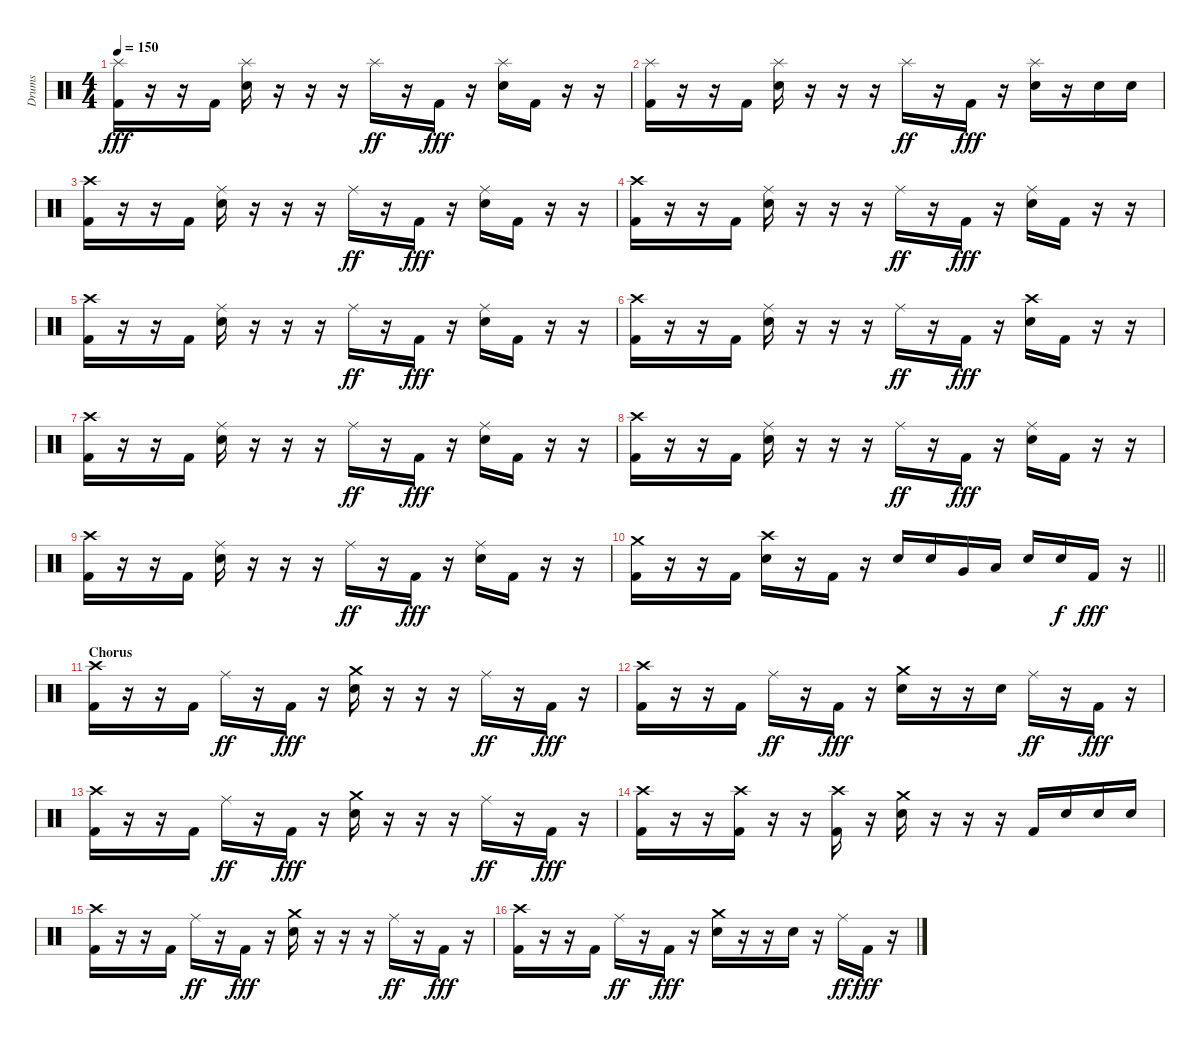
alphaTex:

\track ("Drums" "Drums") {instrument percussion}
\staff {score}
\articulation defaults
\ts (4 4)
\tempo 150
\clef neutral
\ks c
("Splash (hit)" "Kick (hit) 2").16{dy fff} r.16 r.16 "Kick (hit) 2".16 ("Splash (hit)" "Electric Snare (hit)").16 r.16 r.16 r.16 "Splash (hit)".16{dy ff} r.16 "Kick (hit) 2".16{dy fff} r.16 ("Splash (hit)" "Electric Snare (hit)").16 "Kick (hit) 2".16 r.16 r.16 |
("Splash (hit)" "Kick (hit) 2").16 r.16 r.16 "Kick (hit) 2".16 ("Splash (hit)" "Electric Snare (hit)").16 r.16 r.16 r.16 "Splash (hit)".16{dy ff} r.16 "Kick (hit) 2".16{dy fff} r.16 ("Splash (hit)" "Electric Snare (hit)").16 r.16 "Electric Snare (hit)".16 "Electric Snare (hit)".16 |
("Crash high (hit)" "Kick (hit) 2").16 r.16 r.16 "Kick (hit) 2".16 ("Ride (middle)" "Electric Snare (hit)").16 r.16 r.16 r.16 "Ride (middle)".16{dy ff} r.16 "Kick (hit) 2".16{dy fff} r.16 ("Ride (middle)" "Electric Snare (hit)").16 "Kick (hit) 2".16 r.16 r.16 |
("Crash high (hit)" "Kick (hit) 2").16 r.16 r.16 "Kick (hit) 2".16 ("Ride (middle)" "Electric Snare (hit)").16 r.16 r.16 r.16 "Ride (middle)".16{dy ff} r.16 "Kick (hit) 2".16{dy fff} r.16 ("Ride (middle)" "Electric Snare (hit)").16 "Kick (hit) 2".16 r.16 r.16 |
("Crash high (hit)" "Kick (hit) 2").16 r.16 r.16 "Kick (hit) 2".16 ("Ride (middle)" "Electric Snare (hit)").16 r.16 r.16 r.16 "Ride (middle)".16{dy ff} r.16 "Kick (hit) 2".16{dy fff} r.16 ("Ride (middle)" "Electric Snare (hit)").16 "Kick (hit) 2".16 r.16 r.16 |
("Crash high (hit)" "Kick (hit) 2").16 r.16 r.16 "Kick (hit) 2".16 ("Ride (middle)" "Electric Snare (hit)").16 r.16 r.16 r.16 "Ride (middle)".16{dy ff} r.16 "Kick (hit) 2".16{dy fff} r.16 ("Crash high (hit)" "Electric Snare (hit)").16 "Kick (hit) 2".16 r.16 r.16 |
("Crash high (hit)" "Kick (hit) 2").16 r.16 r.16 "Kick (hit) 2".16 ("Ride (middle)" "Electric Snare (hit)").16 r.16 r.16 r.16 "Ride (middle)".16{dy ff} r.16 "Kick (hit) 2".16{dy fff} r.16 ("Ride (middle)" "Electric Snare (hit)").16 "Kick (hit) 2".16 r.16 r.16 |
("Crash high (hit)" "Kick (hit) 2").16 r.16 r.16 "Kick (hit) 2".16 ("Ride (middle)" "Electric Snare (hit)").16 r.16 r.16 r.16 "Ride (middle)".16{dy ff} r.16 "Kick (hit) 2".16{dy fff} r.16 ("Ride (middle)" "Electric Snare (hit)").16 "Kick (hit) 2".16 r.16 r.16 |
("Crash high (hit)" "Kick (hit) 2").16 r.16 r.16 "Kick (hit) 2".16 ("Ride (middle)" "Electric Snare (hit)").16 r.16 r.16 r.16 "Ride (middle)".16{dy ff} r.16 "Kick (hit) 2".16{dy fff} r.16 ("Ride (middle)" "Electric Snare (hit)").16 "Kick (hit) 2".16 r.16 r.16 |
\barLineRight lightlight
("Crash medium (hit)" "Kick (hit) 2").16 r.16 r.16 "Kick (hit) 2".16 ("Crash high (hit)" "Electric Snare (hit)").16 r.16 "Kick (hit) 2".16 r.16 "Electric Snare (hit)".16 "Electric Snare (hit)".16 "Very Low Tom (hit)".16 "Low Floor Tom (hit)".16 "Electric Snare (hit)".16 "Electric Snare (hit)".16{dy f} "Kick (hit) 2".16{dy fff} r.16 |
\section ("" "Chorus")
("Crash high (hit)" "Kick (hit) 2").16 r.16 r.16 "Kick (hit) 2".16 "Ride (middle)".16{dy ff} r.16 "Kick (hit) 2".16{dy fff} r.16 ("Crash medium (hit)" "Electric Snare (hit)").16 r.16 r.16 r.16 "Ride (middle)".16{dy ff} r.16 "Kick (hit) 2".16{dy fff} r.16 |
("Crash high (hit)" "Kick (hit) 2").16 r.16 r.16 "Kick (hit) 2".16 "Ride (middle)".16{dy ff} r.16 "Kick (hit) 2".16{dy fff} r.16 ("Crash medium (hit)" "Electric Snare (hit)").16 r.16 r.16 "Electric Snare (hit)".16 "Ride (middle)".16{dy ff} r.16 "Kick (hit) 2".16{dy fff} r.16 |
("Crash high (hit)" "Kick (hit) 2").16 r.16 r.16 "Kick (hit) 2".16 "Ride (middle)".16{dy ff} r.16 "Kick (hit) 2".16{dy fff} r.16 ("Crash medium (hit)" "Electric Snare (hit)").16 r.16 r.16 r.16 "Ride (middle)".16{dy ff} r.16 "Kick (hit) 2".16{dy fff} r.16 |
("Crash high (hit)" "Kick (hit) 2").16 r.16 r.16 ("Crash high (hit)" "Kick (hit) 2").16 r.16 r.16 ("Crash high (hit)" "Kick (hit) 2").16 r.16 ("Crash medium (hit)" "Electric Snare (hit)").16 r.16 r.16 r.16 "Kick (hit) 2".16 "Electric Snare (hit)".16 "Electric Snare (hit)".16 "Electric Snare (hit)".16 |
("Crash high (hit)" "Kick (hit) 2").16 r.16 r.16 "Kick (hit) 2".16 "Ride (middle)".16{dy ff} r.16 "Kick (hit) 2".16{dy fff} r.16 ("Crash medium (hit)" "Electric Snare (hit)").16 r.16 r.16 r.16 "Ride (middle)".16{dy ff} r.16 "Kick (hit) 2".16{dy fff} r.16 |
("Crash high (hit)" "Kick (hit) 2").16 r.16 r.16 "Kick (hit) 2".16 "Ride (middle)".16{dy ff} r.16 "Kick (hit) 2".16{dy fff} r.16 ("Crash medium (hit)" "Electric Snare (hit)").16 r.16 r.16 "Electric Snare (hit)".16 r.16 "Ride (middle)".16{dy ff} "Kick (hit) 2".16{dy fff} r.16
